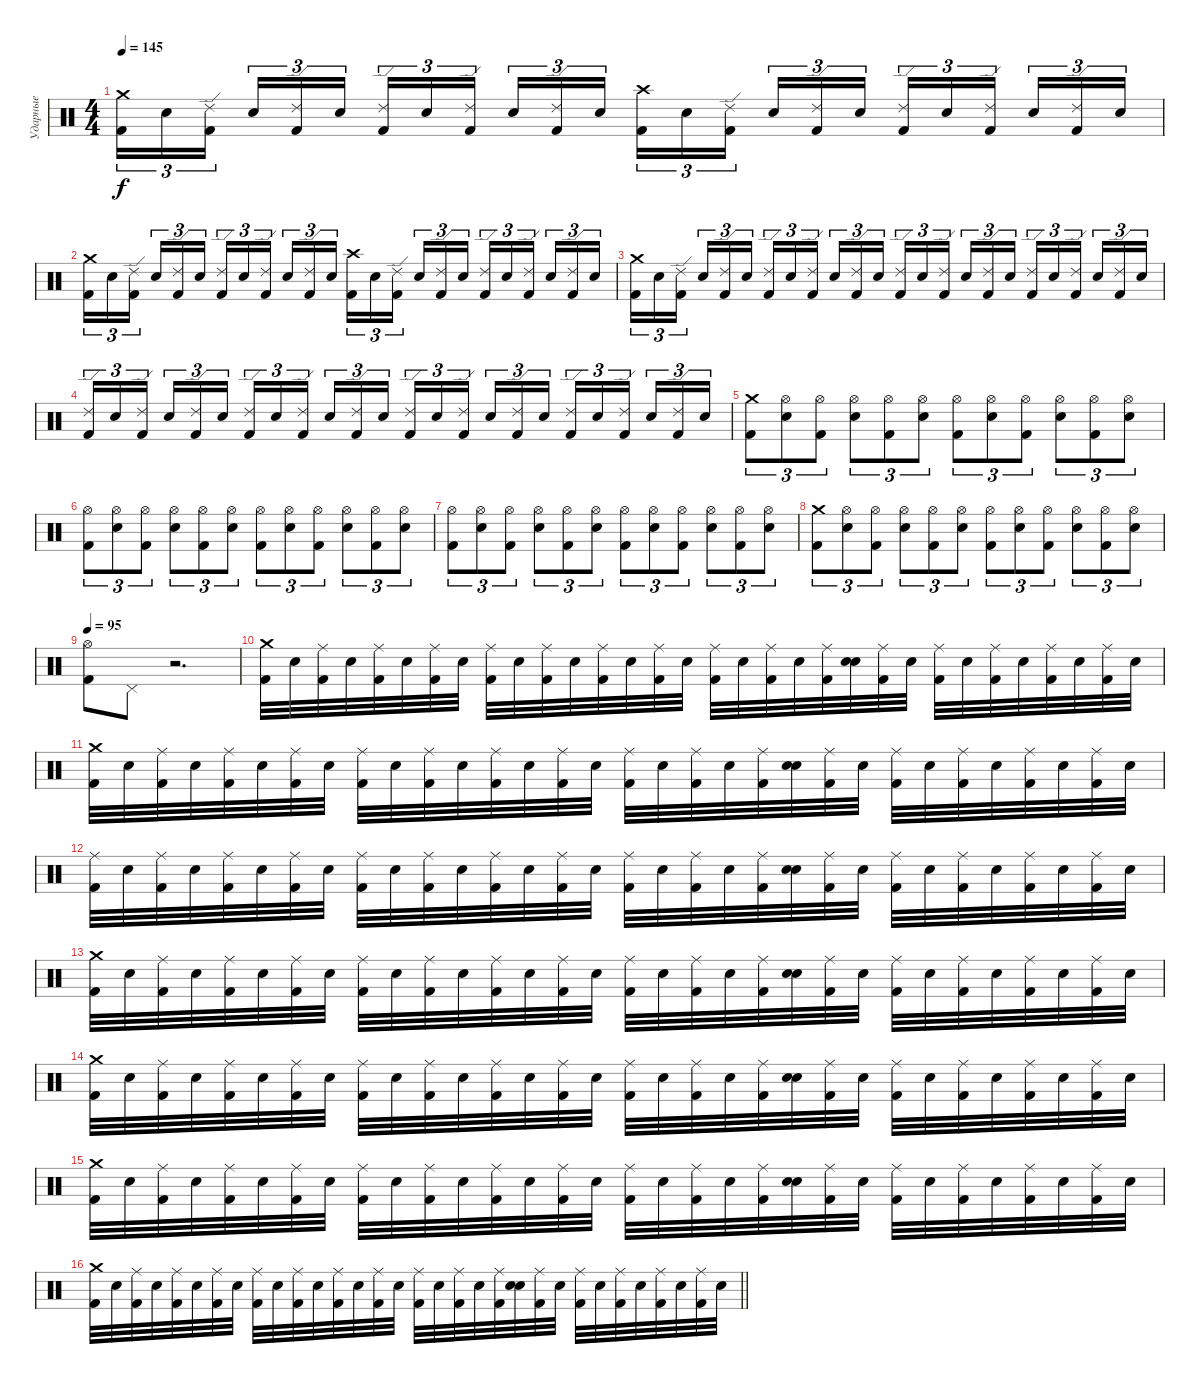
\track ("Ударные" "Ударные") {instrument percussion}
\staff {score}
\articulation defaults
\ts (4 4)
\tempo 145
\clef neutral
\ks c
("Kick (hit) 2" "Crash medium (hit)").16{tu (3 2) dy f} "Snare (hit) 2".16{tu (3 2)} ("Kick (hit) 2" "Ride (edge) 2").16{tu (3 2) beam splitsecondary} "Snare (hit) 2".16{tu (3 2)} ("Kick (hit) 2" "Ride (edge) 2").16{tu (3 2)} "Snare (hit) 2".16{tu (3 2)} ("Kick (hit) 2" "Ride (edge) 2").16{tu (3 2)} "Snare (hit) 2".16{tu (3 2)} ("Kick (hit) 2" "Ride (edge) 2").16{tu (3 2) beam splitsecondary} "Snare (hit) 2".16{tu (3 2)} ("Kick (hit) 2" "Ride (edge) 2").16{tu (3 2)} "Snare (hit) 2".16{tu (3 2)} ("Kick (hit) 2" "Crash high (hit)").16{tu (3 2)} "Snare (hit) 2".16{tu (3 2)} ("Kick (hit) 2" "Ride (edge) 2").16{tu (3 2) beam splitsecondary} "Snare (hit) 2".16{tu (3 2)} ("Kick (hit) 2" "Ride (edge) 2").16{tu (3 2)} "Snare (hit) 2".16{tu (3 2)} ("Kick (hit) 2" "Ride (edge) 2").16{tu (3 2)} "Snare (hit) 2".16{tu (3 2)} ("Kick (hit) 2" "Ride (edge) 2").16{tu (3 2) beam splitsecondary} "Snare (hit) 2".16{tu (3 2)} ("Kick (hit) 2" "Ride (edge) 2").16{tu (3 2)} "Snare (hit) 2".16{tu (3 2)} |
("Kick (hit) 2" "Crash medium (hit)").16{tu (3 2)} "Snare (hit) 2".16{tu (3 2)} ("Kick (hit) 2" "Ride (edge) 2").16{tu (3 2) beam splitsecondary} "Snare (hit) 2".16{tu (3 2)} ("Kick (hit) 2" "Ride (edge) 2").16{tu (3 2)} "Snare (hit) 2".16{tu (3 2)} ("Kick (hit) 2" "Ride (edge) 2").16{tu (3 2)} "Snare (hit) 2".16{tu (3 2)} ("Kick (hit) 2" "Ride (edge) 2").16{tu (3 2) beam splitsecondary} "Snare (hit) 2".16{tu (3 2)} ("Kick (hit) 2" "Ride (edge) 2").16{tu (3 2)} "Snare (hit) 2".16{tu (3 2)} ("Kick (hit) 2" "Crash high (hit)").16{tu (3 2)} "Snare (hit) 2".16{tu (3 2)} ("Kick (hit) 2" "Ride (edge) 2").16{tu (3 2) beam splitsecondary} "Snare (hit) 2".16{tu (3 2)} ("Kick (hit) 2" "Ride (edge) 2").16{tu (3 2)} "Snare (hit) 2".16{tu (3 2)} ("Kick (hit) 2" "Ride (edge) 2").16{tu (3 2)} "Snare (hit) 2".16{tu (3 2)} ("Kick (hit) 2" "Ride (edge) 2").16{tu (3 2) beam splitsecondary} "Snare (hit) 2".16{tu (3 2)} ("Kick (hit) 2" "Ride (edge) 2").16{tu (3 2)} "Snare (hit) 2".16{tu (3 2)} |
("Kick (hit) 2" "Crash medium (hit)").16{tu (3 2)} "Snare (hit) 2".16{tu (3 2)} ("Kick (hit) 2" "Ride (edge) 2").16{tu (3 2) beam splitsecondary} "Snare (hit) 2".16{tu (3 2)} ("Kick (hit) 2" "Ride (edge) 2").16{tu (3 2)} "Snare (hit) 2".16{tu (3 2)} ("Kick (hit) 2" "Ride (edge) 2").16{tu (3 2)} "Snare (hit) 2".16{tu (3 2)} ("Kick (hit) 2" "Ride (edge) 2").16{tu (3 2) beam splitsecondary} "Snare (hit) 2".16{tu (3 2)} ("Kick (hit) 2" "Ride (edge) 2").16{tu (3 2)} "Snare (hit) 2".16{tu (3 2)} ("Kick (hit) 2" "Ride (edge) 2").16{tu (3 2)} "Snare (hit) 2".16{tu (3 2)} ("Kick (hit) 2" "Ride (edge) 2").16{tu (3 2) beam splitsecondary} "Snare (hit) 2".16{tu (3 2)} ("Kick (hit) 2" "Ride (edge) 2").16{tu (3 2)} "Snare (hit) 2".16{tu (3 2)} ("Kick (hit) 2" "Ride (edge) 2").16{tu (3 2)} "Snare (hit) 2".16{tu (3 2)} ("Kick (hit) 2" "Ride (edge) 2").16{tu (3 2) beam splitsecondary} "Snare (hit) 2".16{tu (3 2)} ("Kick (hit) 2" "Ride (edge) 2").16{tu (3 2)} "Snare (hit) 2".16{tu (3 2)} |
("Kick (hit) 2" "Ride (edge) 2").16{tu (3 2)} "Snare (hit) 2".16{tu (3 2)} ("Kick (hit) 2" "Ride (edge) 2").16{tu (3 2) beam splitsecondary} "Snare (hit) 2".16{tu (3 2)} ("Kick (hit) 2" "Ride (edge) 2").16{tu (3 2)} "Snare (hit) 2".16{tu (3 2)} ("Kick (hit) 2" "Ride (edge) 2").16{tu (3 2)} "Snare (hit) 2".16{tu (3 2)} ("Kick (hit) 2" "Ride (edge) 2").16{tu (3 2) beam splitsecondary} "Snare (hit) 2".16{tu (3 2)} ("Kick (hit) 2" "Ride (edge) 2").16{tu (3 2)} "Snare (hit) 2".16{tu (3 2)} ("Kick (hit) 2" "Ride (edge) 2").16{tu (3 2)} "Snare (hit) 2".16{tu (3 2)} ("Kick (hit) 2" "Ride (edge) 2").16{tu (3 2) beam splitsecondary} "Snare (hit) 2".16{tu (3 2)} ("Kick (hit) 2" "Ride (edge) 2").16{tu (3 2)} "Snare (hit) 2".16{tu (3 2)} ("Kick (hit) 2" "Ride (edge) 2").16{tu (3 2)} "Snare (hit) 2".16{tu (3 2)} ("Kick (hit) 2" "Ride (edge) 2").16{tu (3 2) beam splitsecondary} "Snare (hit) 2".16{tu (3 2)} ("Kick (hit) 2" "Ride (edge) 2").16{tu (3 2)} "Snare (hit) 2".16{tu (3 2)} |
("Kick (hit) 2" "Crash medium (hit)").8{tu (3 2)} ("Snare (hit) 2" "Hi-Hat (open)").8{tu (3 2)} ("Kick (hit) 2" "Hi-Hat (open)").8{tu (3 2)} ("Snare (hit) 2" "Hi-Hat (open)").8{tu (3 2)} ("Kick (hit) 2" "Hi-Hat (open)").8{tu (3 2)} ("Snare (hit) 2" "Hi-Hat (open)").8{tu (3 2)} ("Kick (hit) 2" "Hi-Hat (open)").8{tu (3 2)} ("Snare (hit) 2" "Hi-Hat (open)").8{tu (3 2)} ("Kick (hit) 2" "Hi-Hat (open)").8{tu (3 2)} ("Snare (hit) 2" "Hi-Hat (open)").8{tu (3 2)} ("Kick (hit) 2" "Hi-Hat (open)").8{tu (3 2)} ("Snare (hit) 2" "Hi-Hat (open)").8{tu (3 2)} |
("Kick (hit) 2" "Hi-Hat (open)").8{tu (3 2)} ("Snare (hit) 2" "Hi-Hat (open)").8{tu (3 2)} ("Kick (hit) 2" "Hi-Hat (open)").8{tu (3 2)} ("Snare (hit) 2" "Hi-Hat (open)").8{tu (3 2)} ("Kick (hit) 2" "Hi-Hat (open)").8{tu (3 2)} ("Snare (hit) 2" "Hi-Hat (open)").8{tu (3 2)} ("Kick (hit) 2" "Hi-Hat (open)").8{tu (3 2)} ("Snare (hit) 2" "Hi-Hat (open)").8{tu (3 2)} ("Kick (hit) 2" "Hi-Hat (open)").8{tu (3 2)} ("Snare (hit) 2" "Hi-Hat (open)").8{tu (3 2)} ("Kick (hit) 2" "Hi-Hat (open)").8{tu (3 2)} ("Snare (hit) 2" "Hi-Hat (open)").8{tu (3 2)} |
("Kick (hit) 2" "Hi-Hat (open)").8{tu (3 2)} ("Snare (hit) 2" "Hi-Hat (open)").8{tu (3 2)} ("Kick (hit) 2" "Hi-Hat (open)").8{tu (3 2)} ("Snare (hit) 2" "Hi-Hat (open)").8{tu (3 2)} ("Kick (hit) 2" "Hi-Hat (open)").8{tu (3 2)} ("Snare (hit) 2" "Hi-Hat (open)").8{tu (3 2)} ("Kick (hit) 2" "Hi-Hat (open)").8{tu (3 2)} ("Snare (hit) 2" "Hi-Hat (open)").8{tu (3 2)} ("Kick (hit) 2" "Hi-Hat (open)").8{tu (3 2)} ("Snare (hit) 2" "Hi-Hat (open)").8{tu (3 2)} ("Kick (hit) 2" "Hi-Hat (open)").8{tu (3 2)} ("Snare (hit) 2" "Hi-Hat (open)").8{tu (3 2)} |
("Kick (hit) 2" "Crash medium (hit)").8{tu (3 2)} ("Snare (hit) 2" "Hi-Hat (open)").8{tu (3 2)} ("Kick (hit) 2" "Hi-Hat (open)").8{tu (3 2)} ("Snare (hit) 2" "Hi-Hat (open)").8{tu (3 2)} ("Kick (hit) 2" "Hi-Hat (open)").8{tu (3 2)} ("Snare (hit) 2" "Hi-Hat (open)").8{tu (3 2)} ("Kick (hit) 2" "Hi-Hat (open)").8{tu (3 2)} ("Snare (hit) 2" "Hi-Hat (open)").8{tu (3 2)} ("Kick (hit) 2" "Hi-Hat (open)").8{tu (3 2)} ("Snare (hit) 2" "Hi-Hat (open)").8{tu (3 2)} ("Kick (hit) 2" "Hi-Hat (open)").8{tu (3 2)} ("Snare (hit) 2" "Hi-Hat (open)").8{tu (3 2)} |
\tempo 95
("Kick (hit) 2" "Hi-Hat (open)").8 "Pedal Hi-Hat (hit)".8 r.2{d} |
("Kick (hit) 2" "Crash medium (hit)").32 "Snare (hit) 2".32 ("Kick (hit) 2" "Ride (middle)").32 "Snare (hit) 2".32 ("Kick (hit) 2" "Ride (middle)").32 "Snare (hit) 2".32 ("Kick (hit) 2" "Ride (middle)").32 "Snare (hit) 2".32 ("Kick (hit) 2" "Ride (middle)").32 "Snare (hit) 2".32 ("Kick (hit) 2" "Ride (middle)").32 "Snare (hit) 2".32 ("Kick (hit) 2" "Ride (middle)").32 "Snare (hit) 2".32 ("Kick (hit) 2" "Ride (middle)").32 "Snare (hit) 2".32 ("Kick (hit) 2" "Ride (middle)").32 "Snare (hit) 2".32 ("Kick (hit) 2" "Ride (middle)").32 "Snare (hit) 2".32 ("Kick (hit) 2" "Ride (middle)").32 ("Snare (hit) 2" "Snare (hit)").32 ("Kick (hit) 2" "Ride (middle)").32 "Snare (hit) 2".32 ("Kick (hit) 2" "Ride (middle)").32 "Snare (hit) 2".32 ("Kick (hit) 2" "Ride (middle)").32 "Snare (hit) 2".32 ("Kick (hit) 2" "Ride (middle)").32 "Snare (hit) 2".32 ("Kick (hit) 2" "Ride (middle)").32 "Snare (hit) 2".32 |
("Kick (hit) 2" "Crash medium (hit)").32 "Snare (hit) 2".32 ("Kick (hit) 2" "Ride (middle)").32 "Snare (hit) 2".32 ("Kick (hit) 2" "Ride (middle)").32 "Snare (hit) 2".32 ("Kick (hit) 2" "Ride (middle)").32 "Snare (hit) 2".32 ("Kick (hit) 2" "Ride (middle)").32 "Snare (hit) 2".32 ("Kick (hit) 2" "Ride (middle)").32 "Snare (hit) 2".32 ("Kick (hit) 2" "Ride (middle)").32 "Snare (hit) 2".32 ("Kick (hit) 2" "Ride (middle)").32 "Snare (hit) 2".32 ("Kick (hit) 2" "Ride (middle)").32 "Snare (hit) 2".32 ("Kick (hit) 2" "Ride (middle)").32 "Snare (hit) 2".32 ("Kick (hit) 2" "Ride (middle)").32 ("Snare (hit) 2" "Snare (hit)").32 ("Kick (hit) 2" "Ride (middle)").32 "Snare (hit) 2".32 ("Kick (hit) 2" "Ride (middle)").32 "Snare (hit) 2".32 ("Kick (hit) 2" "Ride (middle)").32 "Snare (hit) 2".32 ("Kick (hit) 2" "Ride (middle)").32 "Snare (hit) 2".32 ("Kick (hit) 2" "Ride (middle)").32 "Snare (hit) 2".32 |
("Kick (hit) 2" "Ride (middle)").32 "Snare (hit) 2".32 ("Kick (hit) 2" "Ride (middle)").32 "Snare (hit) 2".32 ("Kick (hit) 2" "Ride (middle)").32 "Snare (hit) 2".32 ("Kick (hit) 2" "Ride (middle)").32 "Snare (hit) 2".32 ("Kick (hit) 2" "Ride (middle)").32 "Snare (hit) 2".32 ("Kick (hit) 2" "Ride (middle)").32 "Snare (hit) 2".32 ("Kick (hit) 2" "Ride (middle)").32 "Snare (hit) 2".32 ("Kick (hit) 2" "Ride (middle)").32 "Snare (hit) 2".32 ("Kick (hit) 2" "Ride (middle)").32 "Snare (hit) 2".32 ("Kick (hit) 2" "Ride (middle)").32 "Snare (hit) 2".32 ("Kick (hit) 2" "Ride (middle)").32 ("Snare (hit) 2" "Snare (hit)").32 ("Kick (hit) 2" "Ride (middle)").32 "Snare (hit) 2".32 ("Kick (hit) 2" "Ride (middle)").32 "Snare (hit) 2".32 ("Kick (hit) 2" "Ride (middle)").32 "Snare (hit) 2".32 ("Kick (hit) 2" "Ride (middle)").32 "Snare (hit) 2".32 ("Kick (hit) 2" "Ride (middle)").32 "Snare (hit) 2".32 |
("Kick (hit) 2" "Crash medium (hit)").32 "Snare (hit) 2".32 ("Kick (hit) 2" "Ride (middle)").32 "Snare (hit) 2".32 ("Kick (hit) 2" "Ride (middle)").32 "Snare (hit) 2".32 ("Kick (hit) 2" "Ride (middle)").32 "Snare (hit) 2".32 ("Kick (hit) 2" "Ride (middle)").32 "Snare (hit) 2".32 ("Kick (hit) 2" "Ride (middle)").32 "Snare (hit) 2".32 ("Kick (hit) 2" "Ride (middle)").32 "Snare (hit) 2".32 ("Kick (hit) 2" "Ride (middle)").32 "Snare (hit) 2".32 ("Kick (hit) 2" "Ride (middle)").32 "Snare (hit) 2".32 ("Kick (hit) 2" "Ride (middle)").32 "Snare (hit) 2".32 ("Kick (hit) 2" "Ride (middle)").32 ("Snare (hit) 2" "Snare (hit)").32 ("Kick (hit) 2" "Ride (middle)").32 "Snare (hit) 2".32 ("Kick (hit) 2" "Ride (middle)").32 "Snare (hit) 2".32 ("Kick (hit) 2" "Ride (middle)").32 "Snare (hit) 2".32 ("Kick (hit) 2" "Ride (middle)").32 "Snare (hit) 2".32 ("Kick (hit) 2" "Ride (middle)").32 "Snare (hit) 2".32 |
("Kick (hit) 2" "Crash medium (hit)").32 "Snare (hit) 2".32 ("Kick (hit) 2" "Ride (middle)").32 "Snare (hit) 2".32 ("Kick (hit) 2" "Ride (middle)").32 "Snare (hit) 2".32 ("Kick (hit) 2" "Ride (middle)").32 "Snare (hit) 2".32 ("Kick (hit) 2" "Ride (middle)").32 "Snare (hit) 2".32 ("Kick (hit) 2" "Ride (middle)").32 "Snare (hit) 2".32 ("Kick (hit) 2" "Ride (middle)").32 "Snare (hit) 2".32 ("Kick (hit) 2" "Ride (middle)").32 "Snare (hit) 2".32 ("Kick (hit) 2" "Ride (middle)").32 "Snare (hit) 2".32 ("Kick (hit) 2" "Ride (middle)").32 "Snare (hit) 2".32 ("Kick (hit) 2" "Ride (middle)").32 ("Snare (hit) 2" "Snare (hit)").32 ("Kick (hit) 2" "Ride (middle)").32 "Snare (hit) 2".32 ("Kick (hit) 2" "Ride (middle)").32 "Snare (hit) 2".32 ("Kick (hit) 2" "Ride (middle)").32 "Snare (hit) 2".32 ("Kick (hit) 2" "Ride (middle)").32 "Snare (hit) 2".32 ("Kick (hit) 2" "Ride (middle)").32 "Snare (hit) 2".32 |
("Kick (hit) 2" "Crash medium (hit)").32 "Snare (hit) 2".32 ("Kick (hit) 2" "Ride (middle)").32 "Snare (hit) 2".32 ("Kick (hit) 2" "Ride (middle)").32 "Snare (hit) 2".32 ("Kick (hit) 2" "Ride (middle)").32 "Snare (hit) 2".32 ("Kick (hit) 2" "Ride (middle)").32 "Snare (hit) 2".32 ("Kick (hit) 2" "Ride (middle)").32 "Snare (hit) 2".32 ("Kick (hit) 2" "Ride (middle)").32 "Snare (hit) 2".32 ("Kick (hit) 2" "Ride (middle)").32 "Snare (hit) 2".32 ("Kick (hit) 2" "Ride (middle)").32 "Snare (hit) 2".32 ("Kick (hit) 2" "Ride (middle)").32 "Snare (hit) 2".32 ("Kick (hit) 2" "Ride (middle)").32 ("Snare (hit) 2" "Snare (hit)").32 ("Kick (hit) 2" "Ride (middle)").32 "Snare (hit) 2".32 ("Kick (hit) 2" "Ride (middle)").32 "Snare (hit) 2".32 ("Kick (hit) 2" "Ride (middle)").32 "Snare (hit) 2".32 ("Kick (hit) 2" "Ride (middle)").32 "Snare (hit) 2".32 ("Kick (hit) 2" "Ride (middle)").32 "Snare (hit) 2".32 |
\barLineRight lightlight
("Kick (hit) 2" "Crash medium (hit)").32 "Snare (hit) 2".32 ("Kick (hit) 2" "Ride (middle)").32 "Snare (hit) 2".32 ("Kick (hit) 2" "Ride (middle)").32 "Snare (hit) 2".32 ("Kick (hit) 2" "Ride (middle)").32 "Snare (hit) 2".32 ("Kick (hit) 2" "Ride (middle)").32 "Snare (hit) 2".32 ("Kick (hit) 2" "Ride (middle)").32 "Snare (hit) 2".32 ("Kick (hit) 2" "Ride (middle)").32 "Snare (hit) 2".32 ("Kick (hit) 2" "Ride (middle)").32 "Snare (hit) 2".32 ("Kick (hit) 2" "Ride (middle)").32 "Snare (hit) 2".32 ("Kick (hit) 2" "Ride (middle)").32 "Snare (hit) 2".32 ("Kick (hit) 2" "Ride (middle)").32 ("Snare (hit) 2" "Snare (hit)").32 ("Kick (hit) 2" "Ride (middle)").32 "Snare (hit) 2".32 ("Kick (hit) 2" "Ride (middle)").32 "Snare (hit) 2".32 ("Kick (hit) 2" "Ride (middle)").32 "Snare (hit) 2".32 ("Kick (hit) 2" "Ride (middle)").32 "Snare (hit) 2".32 ("Kick (hit) 2" "Ride (middle)").32 "Snare (hit) 2".32
